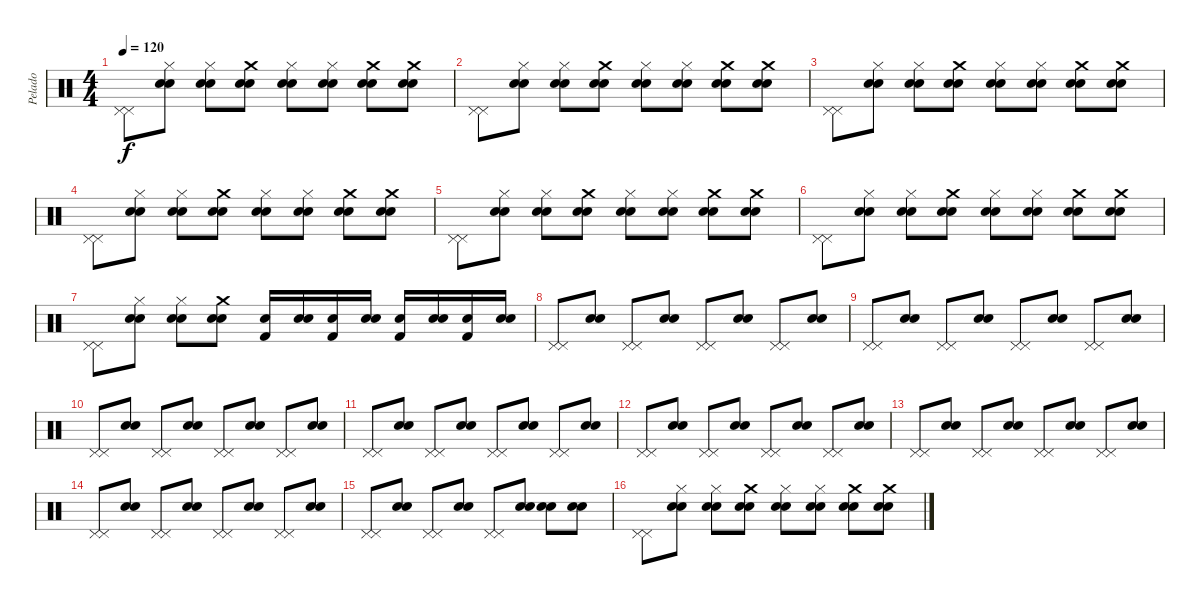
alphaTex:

\track ("Pelado" "Pelado") {instrument percussion}
\staff {score}
\articulation defaults
\ts (4 4)
\tempo 120
\clef neutral
\ks c
("Pedal Hi-Hat (hit)" "Pedal Hi-Hat (hit)").8{dy f} ("Hi-Hat (closed)" "Electric Snare (hit)" "Electric Snare (hit)").8 ("Hi-Hat (closed)" "Electric Snare (hit)" "Electric Snare (hit)").8 ("Crash medium (hit)" "Electric Snare (hit)" "Electric Snare (hit)").8 ("Hi-Hat (closed)" "Electric Snare (hit)" "Electric Snare (hit)").8 ("Hi-Hat (closed)" "Electric Snare (hit)" "Electric Snare (hit)").8 ("Crash medium (hit)" "Electric Snare (hit)" "Electric Snare (hit)").8 ("Crash medium (hit)" "Electric Snare (hit)" "Electric Snare (hit)").8 |
("Pedal Hi-Hat (hit)" "Pedal Hi-Hat (hit)").8 ("Hi-Hat (closed)" "Electric Snare (hit)" "Electric Snare (hit)").8 ("Hi-Hat (closed)" "Electric Snare (hit)" "Electric Snare (hit)").8 ("Crash medium (hit)" "Electric Snare (hit)" "Electric Snare (hit)").8 ("Hi-Hat (closed)" "Electric Snare (hit)" "Electric Snare (hit)").8 ("Hi-Hat (closed)" "Electric Snare (hit)" "Electric Snare (hit)").8 ("Crash medium (hit)" "Electric Snare (hit)" "Electric Snare (hit)").8 ("Crash medium (hit)" "Electric Snare (hit)" "Electric Snare (hit)").8 |
("Pedal Hi-Hat (hit)" "Pedal Hi-Hat (hit)").8 ("Hi-Hat (closed)" "Electric Snare (hit)" "Electric Snare (hit)").8 ("Hi-Hat (closed)" "Electric Snare (hit)" "Electric Snare (hit)").8 ("Crash medium (hit)" "Electric Snare (hit)" "Electric Snare (hit)").8 ("Hi-Hat (closed)" "Electric Snare (hit)" "Electric Snare (hit)").8 ("Hi-Hat (closed)" "Electric Snare (hit)" "Electric Snare (hit)").8 ("Crash medium (hit)" "Electric Snare (hit)" "Electric Snare (hit)").8 ("Crash medium (hit)" "Electric Snare (hit)" "Electric Snare (hit)").8 |
("Pedal Hi-Hat (hit)" "Pedal Hi-Hat (hit)").8 ("Hi-Hat (closed)" "Electric Snare (hit)" "Electric Snare (hit)").8 ("Hi-Hat (closed)" "Electric Snare (hit)" "Electric Snare (hit)").8 ("Crash medium (hit)" "Electric Snare (hit)" "Electric Snare (hit)").8 ("Hi-Hat (closed)" "Electric Snare (hit)" "Electric Snare (hit)").8 ("Hi-Hat (closed)" "Electric Snare (hit)" "Electric Snare (hit)").8 ("Crash medium (hit)" "Electric Snare (hit)" "Electric Snare (hit)").8 ("Crash medium (hit)" "Electric Snare (hit)" "Electric Snare (hit)").8 |
("Pedal Hi-Hat (hit)" "Pedal Hi-Hat (hit)").8 ("Hi-Hat (closed)" "Electric Snare (hit)" "Electric Snare (hit)").8 ("Hi-Hat (closed)" "Electric Snare (hit)" "Electric Snare (hit)").8 ("Crash medium (hit)" "Electric Snare (hit)" "Electric Snare (hit)").8 ("Hi-Hat (closed)" "Electric Snare (hit)" "Electric Snare (hit)").8 ("Hi-Hat (closed)" "Electric Snare (hit)" "Electric Snare (hit)").8 ("Crash medium (hit)" "Electric Snare (hit)" "Electric Snare (hit)").8 ("Crash medium (hit)" "Electric Snare (hit)" "Electric Snare (hit)").8 |
("Pedal Hi-Hat (hit)" "Pedal Hi-Hat (hit)").8 ("Hi-Hat (closed)" "Electric Snare (hit)" "Electric Snare (hit)").8 ("Hi-Hat (closed)" "Electric Snare (hit)" "Electric Snare (hit)").8 ("Crash medium (hit)" "Electric Snare (hit)" "Electric Snare (hit)").8 ("Hi-Hat (closed)" "Electric Snare (hit)" "Electric Snare (hit)").8 ("Hi-Hat (closed)" "Electric Snare (hit)" "Electric Snare (hit)").8 ("Crash medium (hit)" "Electric Snare (hit)" "Electric Snare (hit)").8 ("Crash medium (hit)" "Electric Snare (hit)" "Electric Snare (hit)").8 |
("Pedal Hi-Hat (hit)" "Pedal Hi-Hat (hit)").8 ("Hi-Hat (closed)" "Electric Snare (hit)" "Electric Snare (hit)").8 ("Hi-Hat (closed)" "Electric Snare (hit)" "Electric Snare (hit)").8 ("Crash medium (hit)" "Electric Snare (hit)" "Electric Snare (hit)").8 ("Snare (hit) 2" "Kick (hit) 2").16 ("Electric Snare (hit)" "Electric Snare (hit)").16 ("Snare (hit) 2" "Kick (hit) 2").16 ("Electric Snare (hit)" "Electric Snare (hit)").16 ("Snare (hit) 2" "Kick (hit) 2").16 ("Electric Snare (hit)" "Electric Snare (hit)").16 ("Snare (hit) 2" "Kick (hit) 2").16 ("Electric Snare (hit)" "Electric Snare (hit)").16 |
("Pedal Hi-Hat (hit)" "Pedal Hi-Hat (hit)").8 ("Electric Snare (hit)" "Electric Snare (hit)").8 ("Pedal Hi-Hat (hit)" "Pedal Hi-Hat (hit)").8 ("Electric Snare (hit)" "Electric Snare (hit)").8 ("Pedal Hi-Hat (hit)" "Pedal Hi-Hat (hit)").8 ("Electric Snare (hit)" "Electric Snare (hit)").8 ("Pedal Hi-Hat (hit)" "Pedal Hi-Hat (hit)").8 ("Electric Snare (hit)" "Electric Snare (hit)").8 |
("Pedal Hi-Hat (hit)" "Pedal Hi-Hat (hit)").8 ("Electric Snare (hit)" "Electric Snare (hit)").8 ("Pedal Hi-Hat (hit)" "Pedal Hi-Hat (hit)").8 ("Electric Snare (hit)" "Electric Snare (hit)").8 ("Pedal Hi-Hat (hit)" "Pedal Hi-Hat (hit)").8 ("Electric Snare (hit)" "Electric Snare (hit)").8 ("Pedal Hi-Hat (hit)" "Pedal Hi-Hat (hit)").8 ("Electric Snare (hit)" "Electric Snare (hit)").8 |
("Pedal Hi-Hat (hit)" "Pedal Hi-Hat (hit)").8 ("Electric Snare (hit)" "Electric Snare (hit)").8 ("Pedal Hi-Hat (hit)" "Pedal Hi-Hat (hit)").8 ("Electric Snare (hit)" "Electric Snare (hit)").8 ("Pedal Hi-Hat (hit)" "Pedal Hi-Hat (hit)").8 ("Electric Snare (hit)" "Electric Snare (hit)").8 ("Pedal Hi-Hat (hit)" "Pedal Hi-Hat (hit)").8 ("Electric Snare (hit)" "Electric Snare (hit)").8 |
("Pedal Hi-Hat (hit)" "Pedal Hi-Hat (hit)").8 ("Electric Snare (hit)" "Electric Snare (hit)").8 ("Pedal Hi-Hat (hit)" "Pedal Hi-Hat (hit)").8 ("Electric Snare (hit)" "Electric Snare (hit)").8 ("Pedal Hi-Hat (hit)" "Pedal Hi-Hat (hit)").8 ("Electric Snare (hit)" "Electric Snare (hit)").8 ("Pedal Hi-Hat (hit)" "Pedal Hi-Hat (hit)").8 ("Electric Snare (hit)" "Electric Snare (hit)").8 |
("Pedal Hi-Hat (hit)" "Pedal Hi-Hat (hit)").8 ("Electric Snare (hit)" "Electric Snare (hit)").8 ("Pedal Hi-Hat (hit)" "Pedal Hi-Hat (hit)").8 ("Electric Snare (hit)" "Electric Snare (hit)").8 ("Pedal Hi-Hat (hit)" "Pedal Hi-Hat (hit)").8 ("Electric Snare (hit)" "Electric Snare (hit)").8 ("Pedal Hi-Hat (hit)" "Pedal Hi-Hat (hit)").8 ("Electric Snare (hit)" "Electric Snare (hit)").8 |
("Pedal Hi-Hat (hit)" "Pedal Hi-Hat (hit)").8 ("Electric Snare (hit)" "Electric Snare (hit)").8 ("Pedal Hi-Hat (hit)" "Pedal Hi-Hat (hit)").8 ("Electric Snare (hit)" "Electric Snare (hit)").8 ("Pedal Hi-Hat (hit)" "Pedal Hi-Hat (hit)").8 ("Electric Snare (hit)" "Electric Snare (hit)").8 ("Pedal Hi-Hat (hit)" "Pedal Hi-Hat (hit)").8 ("Electric Snare (hit)" "Electric Snare (hit)").8 |
("Pedal Hi-Hat (hit)" "Pedal Hi-Hat (hit)").8 ("Electric Snare (hit)" "Electric Snare (hit)").8 ("Pedal Hi-Hat (hit)" "Pedal Hi-Hat (hit)").8 ("Electric Snare (hit)" "Electric Snare (hit)").8 ("Pedal Hi-Hat (hit)" "Pedal Hi-Hat (hit)").8 ("Electric Snare (hit)" "Electric Snare (hit)").8 ("Pedal Hi-Hat (hit)" "Pedal Hi-Hat (hit)").8 ("Electric Snare (hit)" "Electric Snare (hit)").8 |
("Pedal Hi-Hat (hit)" "Pedal Hi-Hat (hit)").8 ("Electric Snare (hit)" "Electric Snare (hit)").8 ("Pedal Hi-Hat (hit)" "Pedal Hi-Hat (hit)").8 ("Electric Snare (hit)" "Electric Snare (hit)").8 ("Pedal Hi-Hat (hit)" "Pedal Hi-Hat (hit)").8 ("Electric Snare (hit)" "Electric Snare (hit)").8 ("Electric Snare (hit)" "Electric Snare (hit)").8 ("Electric Snare (hit)" "Electric Snare (hit)").8 |
("Pedal Hi-Hat (hit)" "Pedal Hi-Hat (hit)").8 ("Hi-Hat (closed)" "Electric Snare (hit)" "Electric Snare (hit)").8 ("Hi-Hat (closed)" "Electric Snare (hit)" "Electric Snare (hit)").8 ("Crash medium (hit)" "Electric Snare (hit)" "Electric Snare (hit)").8 ("Hi-Hat (closed)" "Electric Snare (hit)" "Electric Snare (hit)").8 ("Hi-Hat (closed)" "Electric Snare (hit)" "Electric Snare (hit)").8 ("Crash medium (hit)" "Electric Snare (hit)" "Electric Snare (hit)").8 ("Crash medium (hit)" "Electric Snare (hit)" "Electric Snare (hit)").8
